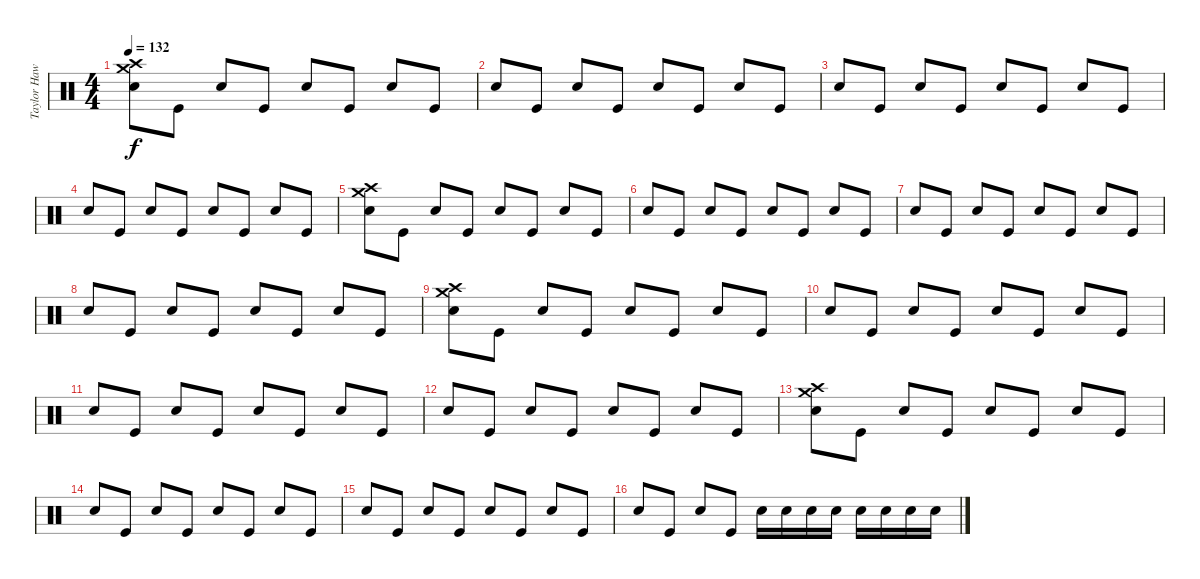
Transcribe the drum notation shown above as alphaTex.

\track ("Taylor Hawkins (Drums)" "Taylor Haw") {instrument percussion}
\staff {score}
\articulation defaults
\ts (4 4)
\tempo 132
\clef neutral
\ks c
("Crash high (hit)" "Crash medium (hit)" "Snare (hit) 2").8{dy f} "Kick (hit)".8 "Snare (hit) 2".8 "Kick (hit)".8 "Snare (hit) 2".8 "Kick (hit)".8 "Snare (hit) 2".8 "Kick (hit)".8 |
"Snare (hit) 2".8 "Kick (hit)".8 "Snare (hit) 2".8 "Kick (hit)".8 "Snare (hit) 2".8 "Kick (hit)".8 "Snare (hit) 2".8 "Kick (hit)".8 |
"Snare (hit) 2".8 "Kick (hit)".8 "Snare (hit) 2".8 "Kick (hit)".8 "Snare (hit) 2".8 "Kick (hit)".8 "Snare (hit) 2".8 "Kick (hit)".8 |
"Snare (hit) 2".8 "Kick (hit)".8 "Snare (hit) 2".8 "Kick (hit)".8 "Snare (hit) 2".8 "Kick (hit)".8 "Snare (hit) 2".8 "Kick (hit)".8 |
("Crash high (hit)" "Crash medium (hit)" "Snare (hit) 2").8 "Kick (hit)".8 "Snare (hit) 2".8 "Kick (hit)".8 "Snare (hit) 2".8 "Kick (hit)".8 "Snare (hit) 2".8 "Kick (hit)".8 |
"Snare (hit) 2".8 "Kick (hit)".8 "Snare (hit) 2".8 "Kick (hit)".8 "Snare (hit) 2".8 "Kick (hit)".8 "Snare (hit) 2".8 "Kick (hit)".8 |
"Snare (hit) 2".8 "Kick (hit)".8 "Snare (hit) 2".8 "Kick (hit)".8 "Snare (hit) 2".8 "Kick (hit)".8 "Snare (hit) 2".8 "Kick (hit)".8 |
"Snare (hit) 2".8 "Kick (hit)".8 "Snare (hit) 2".8 "Kick (hit)".8 "Snare (hit) 2".8 "Kick (hit)".8 "Snare (hit) 2".8 "Kick (hit)".8 |
("Crash high (hit)" "Crash medium (hit)" "Snare (hit) 2").8 "Kick (hit)".8 "Snare (hit) 2".8 "Kick (hit)".8 "Snare (hit) 2".8 "Kick (hit)".8 "Snare (hit) 2".8 "Kick (hit)".8 |
"Snare (hit) 2".8 "Kick (hit)".8 "Snare (hit) 2".8 "Kick (hit)".8 "Snare (hit) 2".8 "Kick (hit)".8 "Snare (hit) 2".8 "Kick (hit)".8 |
"Snare (hit) 2".8 "Kick (hit)".8 "Snare (hit) 2".8 "Kick (hit)".8 "Snare (hit) 2".8 "Kick (hit)".8 "Snare (hit) 2".8 "Kick (hit)".8 |
"Snare (hit) 2".8 "Kick (hit)".8 "Snare (hit) 2".8 "Kick (hit)".8 "Snare (hit) 2".8 "Kick (hit)".8 "Snare (hit) 2".8 "Kick (hit)".8 |
("Crash high (hit)" "Crash medium (hit)" "Snare (hit) 2").8 "Kick (hit)".8 "Snare (hit) 2".8 "Kick (hit)".8 "Snare (hit) 2".8 "Kick (hit)".8 "Snare (hit) 2".8 "Kick (hit)".8 |
"Snare (hit) 2".8 "Kick (hit)".8 "Snare (hit) 2".8 "Kick (hit)".8 "Snare (hit) 2".8 "Kick (hit)".8 "Snare (hit) 2".8 "Kick (hit)".8 |
"Snare (hit) 2".8 "Kick (hit)".8 "Snare (hit) 2".8 "Kick (hit)".8 "Snare (hit) 2".8 "Kick (hit)".8 "Snare (hit) 2".8 "Kick (hit)".8 |
"Snare (hit) 2".8 "Kick (hit)".8 "Snare (hit) 2".8 "Kick (hit)".8 "Snare (hit) 2".16 "Snare (hit) 2".16 "Snare (hit) 2".16 "Snare (hit) 2".16 "Snare (hit) 2".16 "Snare (hit) 2".16 "Snare (hit) 2".16 "Snare (hit) 2".16
